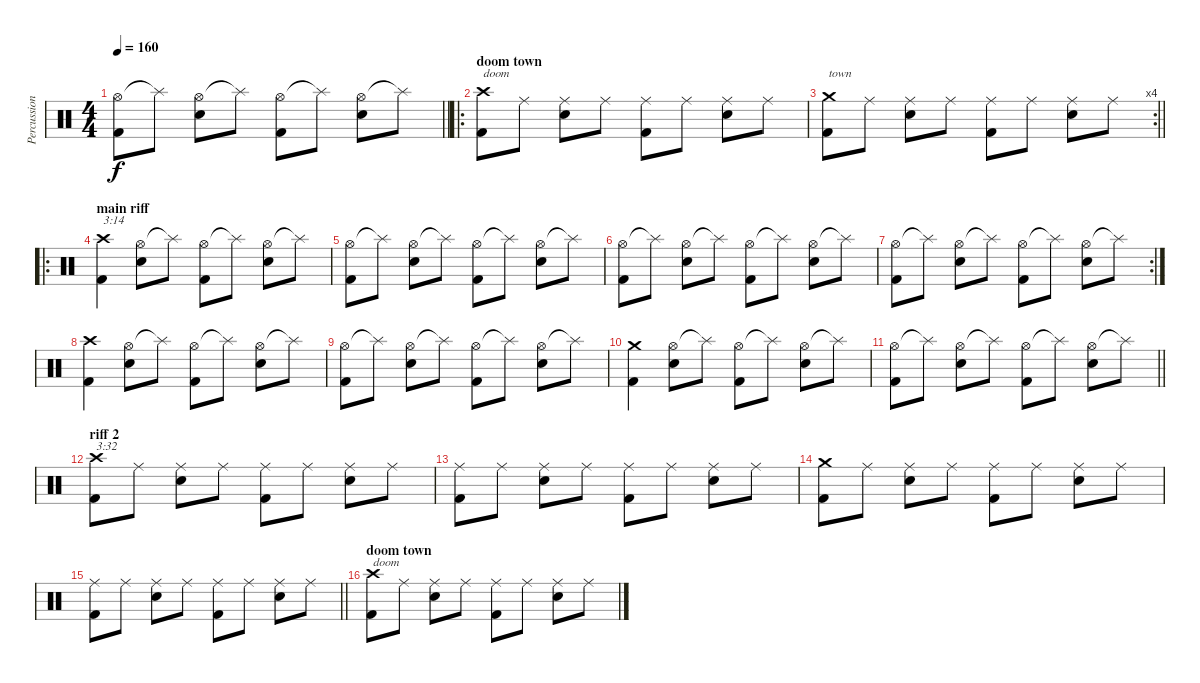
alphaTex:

\track ("Percussion" "Percussion") {mute instrument percussion}
\staff {score}
\articulation defaults
\ts (4 4)
\tempo 160
\clef neutral
\barLineRight lightlight
\ks c
("Hi-Hat (open)" "Kick (hit) 2").8{dy f} "Splash (hit)"{t}.8 ("Hi-Hat (open)" "Snare (hit) 2").8 "Splash (hit)"{t}.8 ("Hi-Hat (open)" "Kick (hit) 2").8 "Splash (hit)"{t}.8 ("Hi-Hat (open)" "Snare (hit) 2").8 "Splash (hit)"{t}.8 |
\ro
\section ("" "doom town")
("Crash high (hit)" "Kick (hit) 2").8{txt "doom"} "Ride (middle)".8 ("Ride (middle)" "Snare (hit) 2").8 "Ride (middle)".8 ("Ride (middle)" "Kick (hit) 2").8 "Ride (middle)".8 ("Ride (middle)" "Snare (hit) 2").8 "Ride (middle)".8 |
\rc 4
\barLineRight lightlight
("Crash medium (hit)" "Kick (hit) 2").8{txt "town"} "Ride (middle)".8 ("Ride (middle)" "Snare (hit) 2").8 "Ride (middle)".8 ("Ride (middle)" "Kick (hit) 2").8 "Ride (middle)".8 ("Ride (middle)" "Snare (hit) 2").8 "Ride (middle)".8 |
\ro
\section ("" "main riff")
("Crash high (hit)" "Kick (hit) 2").4{txt "3:14"} ("Hi-Hat (open)" "Snare (hit) 2").8 "Splash (hit)"{t}.8 ("Hi-Hat (open)" "Kick (hit) 2").8 "Splash (hit)"{t}.8 ("Hi-Hat (open)" "Snare (hit) 2").8 "Splash (hit)"{t}.8 |
("Hi-Hat (open)" "Kick (hit) 2").8 "Splash (hit)"{t}.8 ("Hi-Hat (open)" "Snare (hit) 2").8 "Splash (hit)"{t}.8 ("Hi-Hat (open)" "Kick (hit) 2").8 "Splash (hit)"{t}.8 ("Hi-Hat (open)" "Snare (hit) 2").8 "Splash (hit)"{t}.8 |
("Hi-Hat (open)" "Kick (hit) 2").8 "Splash (hit)"{t}.8 ("Hi-Hat (open)" "Snare (hit) 2").8 "Splash (hit)"{t}.8 ("Hi-Hat (open)" "Kick (hit) 2").8 "Splash (hit)"{t}.8 ("Hi-Hat (open)" "Snare (hit) 2").8 "Splash (hit)"{t}.8 |
\rc 2
("Hi-Hat (open)" "Kick (hit) 2").8 "Splash (hit)"{t}.8 ("Hi-Hat (open)" "Snare (hit) 2").8 "Splash (hit)"{t}.8 ("Hi-Hat (open)" "Kick (hit) 2").8 "Splash (hit)"{t}.8 ("Hi-Hat (open)" "Snare (hit) 2").8 "Splash (hit)"{t}.8 |
("Crash high (hit)" "Kick (hit) 2").4 ("Hi-Hat (open)" "Snare (hit) 2").8 "Splash (hit)"{t}.8 ("Hi-Hat (open)" "Kick (hit) 2").8 "Splash (hit)"{t}.8 ("Hi-Hat (open)" "Snare (hit) 2").8 "Splash (hit)"{t}.8 |
("Hi-Hat (open)" "Kick (hit) 2").8 "Splash (hit)"{t}.8 ("Hi-Hat (open)" "Snare (hit) 2").8 "Splash (hit)"{t}.8 ("Hi-Hat (open)" "Kick (hit) 2").8 "Splash (hit)"{t}.8 ("Hi-Hat (open)" "Snare (hit) 2").8 "Splash (hit)"{t}.8 |
("Crash medium (hit)" "Kick (hit) 2").4 ("Hi-Hat (open)" "Snare (hit) 2").8 "Splash (hit)"{t}.8 ("Hi-Hat (open)" "Kick (hit) 2").8 "Splash (hit)"{t}.8 ("Hi-Hat (open)" "Snare (hit) 2").8 "Splash (hit)"{t}.8 |
\barLineRight lightlight
("Hi-Hat (open)" "Kick (hit) 2").8 "Splash (hit)"{t}.8 ("Hi-Hat (open)" "Snare (hit) 2").8 "Splash (hit)"{t}.8 ("Hi-Hat (open)" "Kick (hit) 2").8 "Splash (hit)"{t}.8 ("Hi-Hat (open)" "Snare (hit) 2").8 "Splash (hit)"{t}.8 |
\section ("" "riff 2")
("Crash high (hit)" "Kick (hit) 2").8{txt "3:32"} "Ride (middle)".8 ("Ride (middle)" "Snare (hit) 2").8 "Ride (middle)".8 ("Ride (middle)" "Kick (hit) 2").8 "Ride (middle)".8 ("Ride (middle)" "Snare (hit) 2").8 "Ride (middle)".8 |
("Ride (middle)" "Kick (hit) 2").8 "Ride (middle)".8 ("Ride (middle)" "Snare (hit) 2").8 "Ride (middle)".8 ("Ride (middle)" "Kick (hit) 2").8 "Ride (middle)".8 ("Ride (middle)" "Snare (hit) 2").8 "Ride (middle)".8 |
("Crash medium (hit)" "Kick (hit) 2").8 "Ride (middle)".8 ("Ride (middle)" "Snare (hit) 2").8 "Ride (middle)".8 ("Ride (middle)" "Kick (hit) 2").8 "Ride (middle)".8 ("Ride (middle)" "Snare (hit) 2").8 "Ride (middle)".8 |
\barLineRight lightlight
("Ride (middle)" "Kick (hit) 2").8 "Ride (middle)".8 ("Ride (middle)" "Snare (hit) 2").8 "Ride (middle)".8 ("Ride (middle)" "Kick (hit) 2").8 "Ride (middle)".8 ("Ride (middle)" "Snare (hit) 2").8 "Ride (middle)".8 |
\section ("" "doom town")
("Crash high (hit)" "Kick (hit) 2").8{txt "doom"} "Ride (middle)".8 ("Ride (middle)" "Snare (hit) 2").8 "Ride (middle)".8 ("Ride (middle)" "Kick (hit) 2").8 "Ride (middle)".8 ("Ride (middle)" "Snare (hit) 2").8 "Ride (middle)".8
